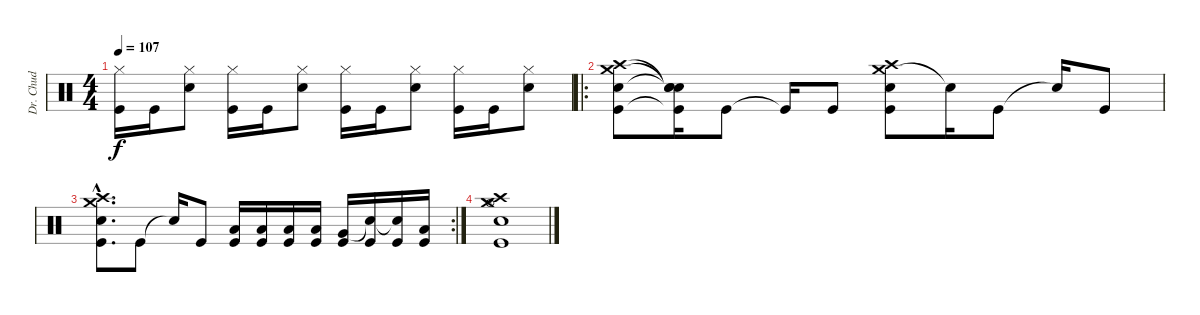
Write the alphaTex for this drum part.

\track ("Dr. Chud" "Dr. Chud") {instrument percussion}
\staff {score}
\articulation defaults
\ts (4 4)
\tempo 107
\clef neutral
\ks c
("Hi-Hat (closed)" "Kick (hit)").16{dy f} "Kick (hit)".16 ("Hi-Hat (closed)" "Snare (hit) 2").8 ("Hi-Hat (closed)" "Kick (hit)").16 "Kick (hit)".16 ("Hi-Hat (closed)" "Snare (hit) 2").8 ("Hi-Hat (closed)" "Kick (hit)").16 "Kick (hit)".16 ("Hi-Hat (closed)" "Snare (hit) 2").8 ("Hi-Hat (closed)" "Kick (hit)").16 "Kick (hit)".16 ("Hi-Hat (closed)" "Snare (hit) 2").8 |
\ro
("Crash medium (hit)" "Crash high (hit)" "Snare (hit) 2" "Kick (hit)").8 ("Snare (hit)"{t} "Snare (hit)"{t} "Snare (hit)"{t} "Kick (hit)"{t}).16 "Kick (hit)".8 "Kick (hit)"{t}.16 "Kick (hit)".8 ("Crash medium (hit)" "Crash high (hit)" "Snare (hit) 2" "Kick (hit)").8 "Snare (hit)"{t}.16 "Kick (hit)".8 "Snare (hit)"{t}.16 "Kick (hit)".8 |
\rc 2
("Crash medium (hit)"{hac} "Crash high (hit)"{hac} "Snare (hit) 2"{hac} "Kick (hit)"{hac}).8{d} "Kick (hit)".8 "Snare (hit)"{t}.16 "Kick (hit)".8 ("Low Tom (hit)" "Kick (hit)").16 ("Low Tom (hit)" "Kick (hit)").16 ("Low Tom (hit)" "Kick (hit)").16 ("Low Tom (hit)" "Kick (hit)").16 ("Very Low Tom (hit)" "Kick (hit)").16 ("Snare (hit)"{t} "Kick (hit)").16 ("Snare (hit)"{t} "Kick (hit)").16 ("Low Floor Tom (hit)" "Kick (hit)").16 |
("Crash medium (hit)" "Crash high (hit)" "Hi-Hat (open)" "Snare (hit) 2" "Kick (hit)").1
